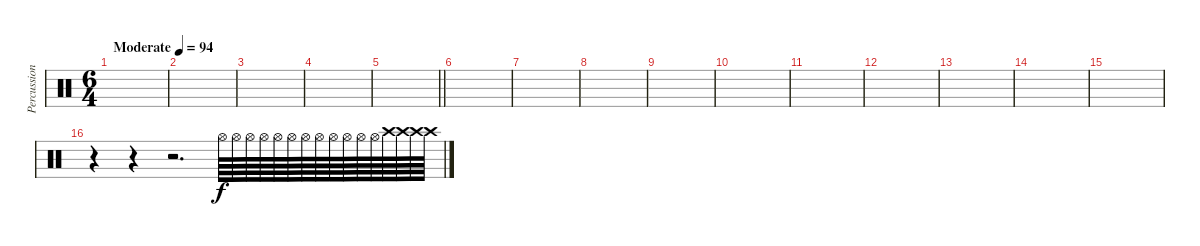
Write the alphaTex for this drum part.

\track ("Percussion" "Percussion") {instrument percussion}
\staff {score}
\articulation defaults
\ts (6 4)
\tempo (94 "Moderate")
\clef neutral
\ks c
|
|
|
|
\barLineRight lightlight
|
|
|
|
|
|
|
|
|
|
|
r.4 r.4 r.2{d volume 0} "Hi-Hat (open)".64{volume 9} "Hi-Hat (open)".64 "Hi-Hat (open)".64 "Hi-Hat (open)".64 "Hi-Hat (open)".64 "Hi-Hat (open)".64 "Hi-Hat (open)".64 "Hi-Hat (open)".64 "Hi-Hat (open)".64 "Hi-Hat (open)".64 "Hi-Hat (open)".64 "Hi-Hat (open)".64 "Crash high (hit)".64 "Crash high (hit)".64 "Crash high (hit)".64 "Crash high (hit)".64
